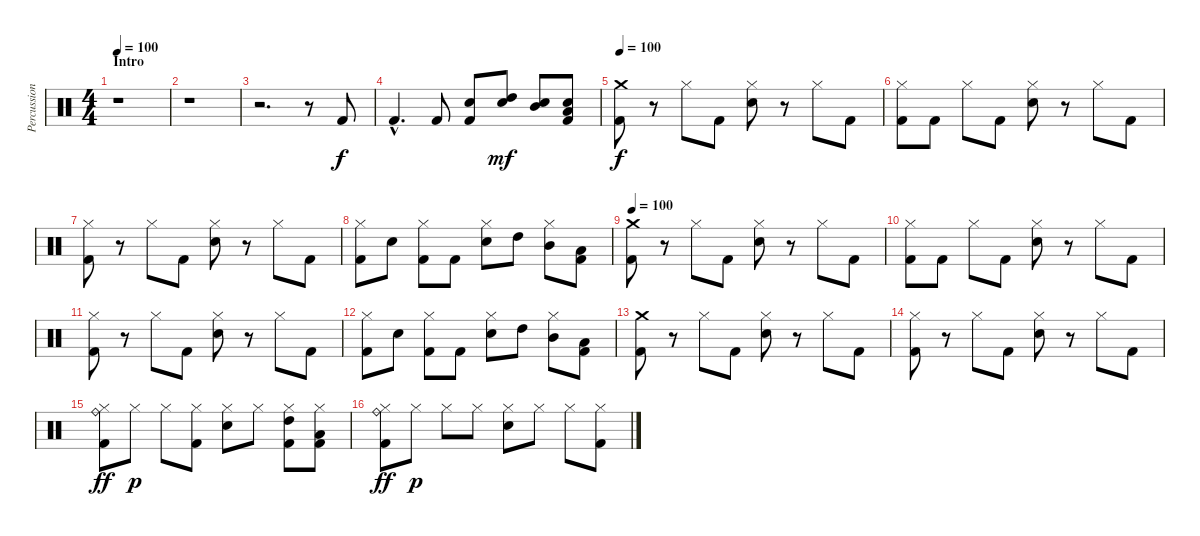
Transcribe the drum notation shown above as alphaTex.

\track ("Percussion" "Percussion") {instrument percussion}
\staff {score}
\articulation defaults
\ts (4 4)
\section ("" "Intro")
\tempo 100
\clef neutral
\ks c
r.1{dy f} |
r.1 |
r.2{d} r.8 "Kick (hit) 2".8 |
"Kick (hit) 2"{hac}.4{d} "Kick (hit) 2".8 ("Snare (hit) 2" "Kick (hit) 2").8 ("High Tom (hit)" "Snare (hit) 2").8{dy mf} ("Mid Tom (hit)" "Snare (hit) 2").8 ("Low Tom (hit)" "Snare (hit) 2" "Kick (hit) 2").8 |
\tempo 100
("Crash medium (hit)" "Kick (hit) 2").8{dy f} r.8 "Hi-Hat (closed)".8 "Kick (hit) 2".8 ("Hi-Hat (closed)" "Snare (hit) 2").8 r.8 "Hi-Hat (closed)".8 "Kick (hit) 2".8 |
("Hi-Hat (closed)" "Kick (hit) 2").8 "Kick (hit) 2".8 "Hi-Hat (closed)".8 "Kick (hit) 2".8 ("Hi-Hat (closed)" "Snare (hit) 2").8 r.8 "Hi-Hat (closed)".8 "Kick (hit) 2".8 |
("Hi-Hat (closed)" "Kick (hit) 2").8 r.8 "Hi-Hat (closed)".8 "Kick (hit) 2".8 ("Hi-Hat (closed)" "Snare (hit) 2").8 r.8 "Hi-Hat (closed)".8 "Kick (hit) 2".8 |
("Hi-Hat (closed)" "Kick (hit) 2").8 "Snare (hit) 2".8 ("Hi-Hat (closed)" "Kick (hit) 2").8 "Kick (hit) 2".8 ("Hi-Hat (closed)" "Snare (hit) 2").8 "High Tom (hit)".8 ("Hi-Hat (closed)" "Mid Tom (hit)").8 ("Low Tom (hit)" "Kick (hit) 2").8 |
\tempo 100
("Crash medium (hit)" "Kick (hit) 2").8 r.8 "Hi-Hat (closed)".8 "Kick (hit) 2".8 ("Hi-Hat (closed)" "Snare (hit) 2").8 r.8 "Hi-Hat (closed)".8 "Kick (hit) 2".8 |
("Hi-Hat (closed)" "Kick (hit) 2").8 "Kick (hit) 2".8 "Hi-Hat (closed)".8 "Kick (hit) 2".8 ("Hi-Hat (closed)" "Snare (hit) 2").8 r.8 "Hi-Hat (closed)".8 "Kick (hit) 2".8 |
("Hi-Hat (closed)" "Kick (hit) 2").8 r.8 "Hi-Hat (closed)".8 "Kick (hit) 2".8 ("Hi-Hat (closed)" "Snare (hit) 2").8 r.8 "Hi-Hat (closed)".8 "Kick (hit) 2".8 |
("Hi-Hat (closed)" "Kick (hit) 2").8 "Snare (hit) 2".8 ("Hi-Hat (closed)" "Kick (hit) 2").8 "Kick (hit) 2".8 ("Hi-Hat (closed)" "Snare (hit) 2").8 "High Tom (hit)".8 ("Hi-Hat (closed)" "Mid Tom (hit)").8 ("Low Tom (hit)" "Kick (hit) 2").8 |
("Crash medium (hit)" "Kick (hit) 2").8 r.8 "Hi-Hat (closed)".8 "Kick (hit) 2".8 ("Hi-Hat (closed)" "Snare (hit) 2").8 r.8 "Hi-Hat (closed)".8 "Kick (hit) 2".8 |
("Hi-Hat (closed)" "Kick (hit) 2").8 r.8 "Hi-Hat (closed)".8 "Kick (hit) 2".8 ("Hi-Hat (closed)" "Snare (hit) 2").8 r.8 "Hi-Hat (closed)".8 "Kick (hit) 2".8 |
("Hi-Hat (closed)" "Ride (bell)" "Kick (hit) 2").8{dy ff volume 14} "Hi-Hat (closed)".8{dy p} "Hi-Hat (closed)".8 ("Hi-Hat (closed)" "Kick (hit) 2").8 ("Hi-Hat (closed)" "Snare (hit) 2").8 "Hi-Hat (closed)".8 ("Hi-Hat (closed)" "High Tom (hit)" "Kick (hit) 2").8 ("Hi-Hat (closed)" "Low Tom (hit)" "Kick (hit) 2").8 |
("Hi-Hat (closed)" "Ride (bell)" "Kick (hit) 2").8{dy ff} "Hi-Hat (closed)".8{dy p} "Hi-Hat (closed)".8 "Hi-Hat (closed)".8 ("Hi-Hat (closed)" "Snare (hit) 2").8 "Hi-Hat (closed)".8 "Hi-Hat (closed)".8 ("Hi-Hat (closed)" "Kick (hit) 2").8
